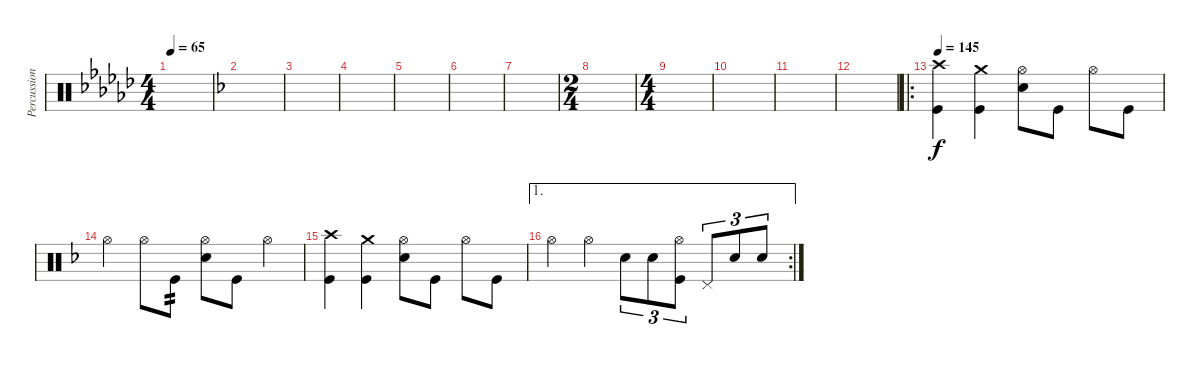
\track ("Percussion" "Percussion") {instrument percussion}
\staff {score}
\articulation defaults
\ts (4 4)
\tempo 65
\clef neutral
\ks ebminor
|
\ks dminor
|
|
|
|
|
|
\ts (2 4)
|
\ts (4 4)
|
|
|
\ks f
|
\ro
\tempo 145
("Crash high (hit)" "Kick (hit)").4 ("Crash medium (hit)" "Kick (hit)").4 ("Hi-Hat (open)" "Electric Snare (hit)").8 "Kick (hit)".8 "Hi-Hat (open)".8 "Kick (hit)".8 |
"Hi-Hat (open)".4 "Hi-Hat (open)".8 "Kick (hit)".8{tp 2} ("Hi-Hat (open)" "Electric Snare (hit)").8 "Kick (hit)".8 "Hi-Hat (open)".4 |
("Crash high (hit)" "Kick (hit)").4 ("Crash medium (hit)" "Kick (hit)").4 ("Hi-Hat (open)" "Electric Snare (hit)").8 "Kick (hit)".8 "Hi-Hat (open)".8 "Kick (hit)".8 |
\ae 1
\rc 2 "Hi-Hat (open)".4 "Hi-Hat (open)".4 "Electric Snare (hit)".8{tu (3 2)} "Electric Snare (hit)".8{tu (3 2)}
("Hi-Hat (open)" "Kick (hit)").8{tu (3 2)} "Pedal Hi-Hat (hit)".8{tu (3 2)} "Electric Snare (hit)".8{tu (3 2)} "Electric Snare (hit)".8{tu (3 2)}
